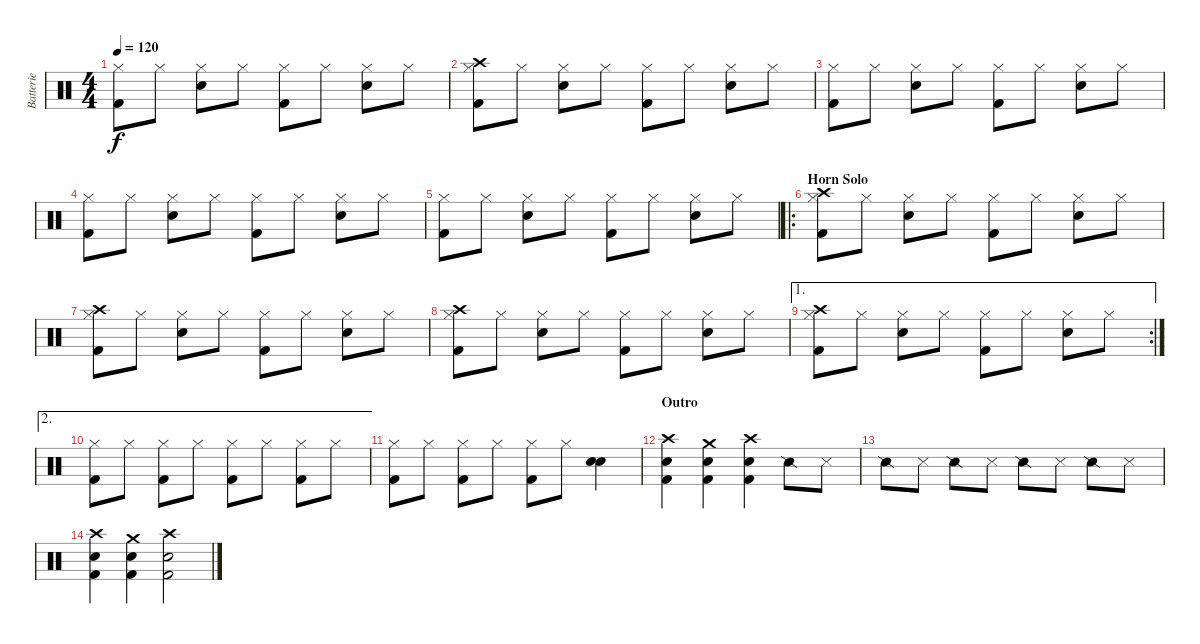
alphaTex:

\track ("Batterie" "Batterie") {instrument percussion}
\staff {score}
\articulation defaults
\ts (4 4)
\tempo 120
\clef neutral
\ks c
("Hi-Hat (closed)" "Kick (hit) 2").8{dy f} "Hi-Hat (closed)".8 ("Hi-Hat (closed)" "Electric Snare (hit)").8 "Hi-Hat (closed)".8 ("Hi-Hat (closed)" "Kick (hit) 2").8 "Hi-Hat (closed)".8 ("Hi-Hat (closed)" "Electric Snare (hit)").8 "Hi-Hat (closed)".8 |
("Hi-Hat (closed)" "Crash high (hit)" "Kick (hit) 2").8 "Hi-Hat (closed)".8 ("Hi-Hat (closed)" "Electric Snare (hit)").8 "Hi-Hat (closed)".8 ("Hi-Hat (closed)" "Kick (hit) 2").8 "Hi-Hat (closed)".8 ("Hi-Hat (closed)" "Electric Snare (hit)").8 "Hi-Hat (closed)".8 |
("Hi-Hat (closed)" "Kick (hit) 2").8 "Hi-Hat (closed)".8 ("Hi-Hat (closed)" "Electric Snare (hit)").8 "Hi-Hat (closed)".8 ("Hi-Hat (closed)" "Kick (hit) 2").8 "Hi-Hat (closed)".8 ("Hi-Hat (closed)" "Electric Snare (hit)").8 "Hi-Hat (closed)".8 |
("Hi-Hat (closed)" "Kick (hit) 2").8 "Hi-Hat (closed)".8 ("Hi-Hat (closed)" "Electric Snare (hit)").8 "Hi-Hat (closed)".8 ("Hi-Hat (closed)" "Kick (hit) 2").8 "Hi-Hat (closed)".8 ("Hi-Hat (closed)" "Electric Snare (hit)").8 "Hi-Hat (closed)".8 |
("Hi-Hat (closed)" "Kick (hit) 2").8 "Hi-Hat (closed)".8 ("Hi-Hat (closed)" "Electric Snare (hit)").8 "Hi-Hat (closed)".8 ("Hi-Hat (closed)" "Kick (hit) 2").8 "Hi-Hat (closed)".8 ("Hi-Hat (closed)" "Electric Snare (hit)").8 "Hi-Hat (closed)".8 |
\ro
\section ("" "Horn Solo")
("Hi-Hat (closed)" "Crash high (hit)" "Kick (hit) 2").8 "Hi-Hat (closed)".8 ("Hi-Hat (closed)" "Electric Snare (hit)").8 "Hi-Hat (closed)".8 ("Hi-Hat (closed)" "Kick (hit) 2").8 "Hi-Hat (closed)".8 ("Hi-Hat (closed)" "Electric Snare (hit)").8 "Hi-Hat (closed)".8 |
("Hi-Hat (closed)" "Crash high (hit)" "Kick (hit) 2").8 "Hi-Hat (closed)".8 ("Hi-Hat (closed)" "Electric Snare (hit)").8 "Hi-Hat (closed)".8 ("Hi-Hat (closed)" "Kick (hit) 2").8 "Hi-Hat (closed)".8 ("Hi-Hat (closed)" "Electric Snare (hit)").8 "Hi-Hat (closed)".8 |
("Hi-Hat (closed)" "Crash high (hit)" "Kick (hit) 2").8 "Hi-Hat (closed)".8 ("Hi-Hat (closed)" "Electric Snare (hit)").8 "Hi-Hat (closed)".8 ("Hi-Hat (closed)" "Kick (hit) 2").8 "Hi-Hat (closed)".8 ("Hi-Hat (closed)" "Electric Snare (hit)").8 "Hi-Hat (closed)".8 |
\ae 1
\rc 2
("Hi-Hat (closed)" "Crash high (hit)" "Kick (hit) 2").8 "Hi-Hat (closed)".8 ("Hi-Hat (closed)" "Electric Snare (hit)").8 "Hi-Hat (closed)".8 ("Hi-Hat (closed)" "Kick (hit) 2").8 "Hi-Hat (closed)".8 ("Hi-Hat (closed)" "Electric Snare (hit)").8 "Hi-Hat (closed)".8 |
\ae 2
("Hi-Hat (closed)" "Kick (hit) 2").8 "Hi-Hat (closed)".8 ("Hi-Hat (closed)" "Kick (hit) 2").8 "Hi-Hat (closed)".8 ("Hi-Hat (closed)" "Kick (hit) 2").8 "Hi-Hat (closed)".8 ("Hi-Hat (closed)" "Kick (hit) 2").8 "Hi-Hat (closed)".8 |
("Hi-Hat (closed)" "Kick (hit) 2").8 "Hi-Hat (closed)".8 ("Hi-Hat (closed)" "Kick (hit) 2").8 "Hi-Hat (closed)".8 ("Hi-Hat (closed)" "Kick (hit) 2").8 "Hi-Hat (closed)".8 ("Electric Snare (hit)" "Electric Snare (hit)").4 |
\section ("" "Outro")
("Crash high (hit)" "Electric Snare (hit)" "Kick (hit) 2").4 ("Crash medium (hit)" "Electric Snare (hit)" "Kick (hit) 2").4 ("Crash high (hit)" "Electric Snare (hit)" "Kick (hit) 2").4 "Snare (side stick) 2".8 "Snare (side stick) 3".8 |
"Snare (side stick) 2".8 "Snare (side stick) 3".8 "Snare (side stick) 2".8 "Snare (side stick) 3".8 "Snare (side stick) 2".8 "Snare (side stick) 3".8 "Snare (side stick) 2".8 "Snare (side stick) 3".8 |
("Crash high (hit)" "Electric Snare (hit)" "Kick (hit) 2").4 ("Crash medium (hit)" "Electric Snare (hit)" "Kick (hit) 2").4 ("Crash high (hit)" "Electric Snare (hit)" "Kick (hit) 2").2
